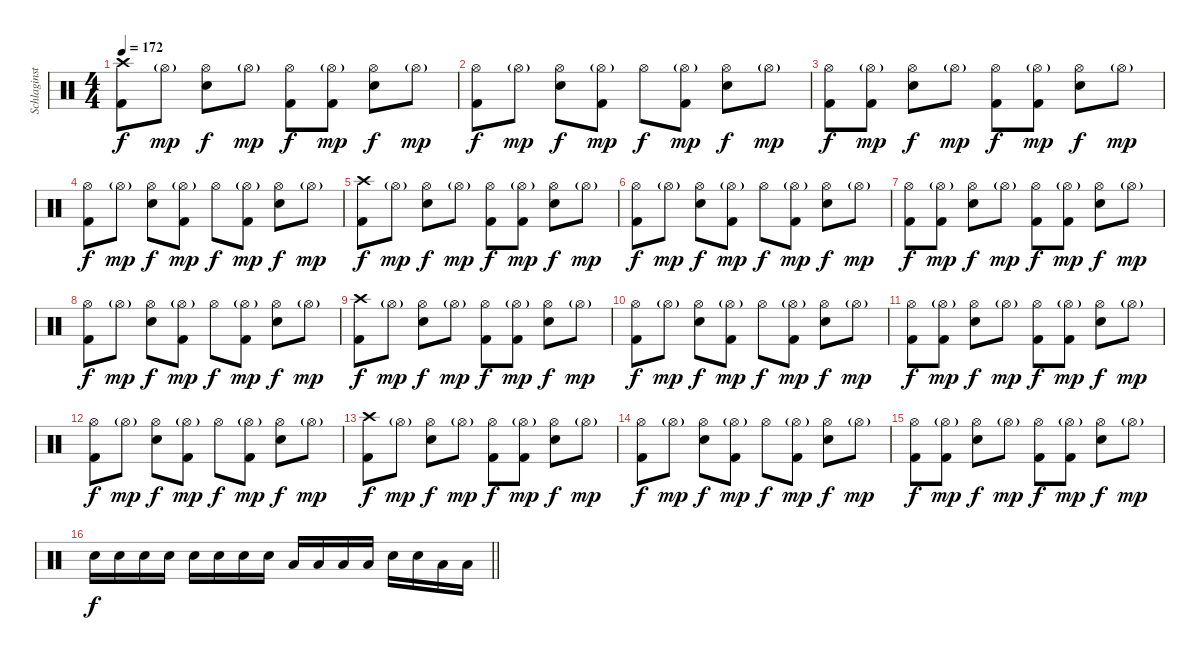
\track ("Schlaginstrumente - Auswahl" "Schlaginst") {instrument percussion}
\staff {score}
\articulation defaults
\ts (4 4)
\tempo 172
\clef neutral
\ks c
("Crash high (hit)" "Kick (hit) 2").8{dy f} "Hi-Hat (open)"{g}.8{dy mp} ("Hi-Hat (open)" "Snare (hit) 2").8{dy f} "Hi-Hat (open)"{g}.8{dy mp} ("Hi-Hat (open)" "Kick (hit) 2").8{dy f} ("Hi-Hat (open)"{g} "Kick (hit) 2").8{dy mp} ("Hi-Hat (open)" "Snare (hit) 2").8{dy f} "Hi-Hat (open)"{g}.8{dy mp} |
("Hi-Hat (open)" "Kick (hit) 2").8{dy f} "Hi-Hat (open)"{g}.8{dy mp} ("Hi-Hat (open)" "Snare (hit) 2").8{dy f} ("Hi-Hat (open)"{g} "Kick (hit) 2").8{dy mp} "Hi-Hat (open)".8{dy f} ("Hi-Hat (open)"{g} "Kick (hit) 2").8{dy mp} ("Hi-Hat (open)" "Snare (hit) 2").8{dy f} "Hi-Hat (open)"{g}.8{dy mp} |
("Hi-Hat (open)" "Kick (hit) 2").8{dy f} ("Hi-Hat (open)"{g} "Kick (hit) 2").8{dy mp} ("Hi-Hat (open)" "Snare (hit) 2").8{dy f} "Hi-Hat (open)"{g}.8{dy mp} ("Hi-Hat (open)" "Kick (hit) 2").8{dy f} ("Hi-Hat (open)"{g} "Kick (hit) 2").8{dy mp} ("Hi-Hat (open)" "Snare (hit) 2").8{dy f} "Hi-Hat (open)"{g}.8{dy mp} |
("Hi-Hat (open)" "Kick (hit) 2").8{dy f} "Hi-Hat (open)"{g}.8{dy mp} ("Hi-Hat (open)" "Snare (hit) 2").8{dy f} ("Hi-Hat (open)"{g} "Kick (hit) 2").8{dy mp} "Hi-Hat (open)".8{dy f} ("Hi-Hat (open)"{g} "Kick (hit) 2").8{dy mp} ("Hi-Hat (open)" "Snare (hit) 2").8{dy f} "Hi-Hat (open)"{g}.8{dy mp} |
("Crash high (hit)" "Kick (hit) 2").8{dy f} "Hi-Hat (open)"{g}.8{dy mp} ("Hi-Hat (open)" "Snare (hit) 2").8{dy f} "Hi-Hat (open)"{g}.8{dy mp} ("Hi-Hat (open)" "Kick (hit) 2").8{dy f} ("Hi-Hat (open)"{g} "Kick (hit) 2").8{dy mp} ("Hi-Hat (open)" "Snare (hit) 2").8{dy f} "Hi-Hat (open)"{g}.8{dy mp} |
("Hi-Hat (open)" "Kick (hit) 2").8{dy f} "Hi-Hat (open)"{g}.8{dy mp} ("Hi-Hat (open)" "Snare (hit) 2").8{dy f} ("Hi-Hat (open)"{g} "Kick (hit) 2").8{dy mp} "Hi-Hat (open)".8{dy f} ("Hi-Hat (open)"{g} "Kick (hit) 2").8{dy mp} ("Hi-Hat (open)" "Snare (hit) 2").8{dy f} "Hi-Hat (open)"{g}.8{dy mp} |
("Hi-Hat (open)" "Kick (hit) 2").8{dy f} ("Hi-Hat (open)"{g} "Kick (hit) 2").8{dy mp} ("Hi-Hat (open)" "Snare (hit) 2").8{dy f} "Hi-Hat (open)"{g}.8{dy mp} ("Hi-Hat (open)" "Kick (hit) 2").8{dy f} ("Hi-Hat (open)"{g} "Kick (hit) 2").8{dy mp} ("Hi-Hat (open)" "Snare (hit) 2").8{dy f} "Hi-Hat (open)"{g}.8{dy mp} |
("Hi-Hat (open)" "Kick (hit) 2").8{dy f} "Hi-Hat (open)"{g}.8{dy mp} ("Hi-Hat (open)" "Snare (hit) 2").8{dy f} ("Hi-Hat (open)"{g} "Kick (hit) 2").8{dy mp} "Hi-Hat (open)".8{dy f} ("Hi-Hat (open)"{g} "Kick (hit) 2").8{dy mp} ("Hi-Hat (open)" "Snare (hit) 2").8{dy f} "Hi-Hat (open)"{g}.8{dy mp} |
("Crash high (hit)" "Kick (hit) 2").8{dy f} "Hi-Hat (open)"{g}.8{dy mp} ("Hi-Hat (open)" "Snare (hit) 2").8{dy f} "Hi-Hat (open)"{g}.8{dy mp} ("Hi-Hat (open)" "Kick (hit) 2").8{dy f} ("Hi-Hat (open)"{g} "Kick (hit) 2").8{dy mp} ("Hi-Hat (open)" "Snare (hit) 2").8{dy f} "Hi-Hat (open)"{g}.8{dy mp} |
("Hi-Hat (open)" "Kick (hit) 2").8{dy f} "Hi-Hat (open)"{g}.8{dy mp} ("Hi-Hat (open)" "Snare (hit) 2").8{dy f} ("Hi-Hat (open)"{g} "Kick (hit) 2").8{dy mp} "Hi-Hat (open)".8{dy f} ("Hi-Hat (open)"{g} "Kick (hit) 2").8{dy mp} ("Hi-Hat (open)" "Snare (hit) 2").8{dy f} "Hi-Hat (open)"{g}.8{dy mp} |
("Hi-Hat (open)" "Kick (hit) 2").8{dy f} ("Hi-Hat (open)"{g} "Kick (hit) 2").8{dy mp} ("Hi-Hat (open)" "Snare (hit) 2").8{dy f} "Hi-Hat (open)"{g}.8{dy mp} ("Hi-Hat (open)" "Kick (hit) 2").8{dy f} ("Hi-Hat (open)"{g} "Kick (hit) 2").8{dy mp} ("Hi-Hat (open)" "Snare (hit) 2").8{dy f} "Hi-Hat (open)"{g}.8{dy mp} |
("Hi-Hat (open)" "Kick (hit) 2").8{dy f} "Hi-Hat (open)"{g}.8{dy mp} ("Hi-Hat (open)" "Snare (hit) 2").8{dy f} ("Hi-Hat (open)"{g} "Kick (hit) 2").8{dy mp} "Hi-Hat (open)".8{dy f} ("Hi-Hat (open)"{g} "Kick (hit) 2").8{dy mp} ("Hi-Hat (open)" "Snare (hit) 2").8{dy f} "Hi-Hat (open)"{g}.8{dy mp} |
("Crash high (hit)" "Kick (hit) 2").8{dy f} "Hi-Hat (open)"{g}.8{dy mp} ("Hi-Hat (open)" "Snare (hit) 2").8{dy f} "Hi-Hat (open)"{g}.8{dy mp} ("Hi-Hat (open)" "Kick (hit) 2").8{dy f} ("Hi-Hat (open)"{g} "Kick (hit) 2").8{dy mp} ("Hi-Hat (open)" "Snare (hit) 2").8{dy f} "Hi-Hat (open)"{g}.8{dy mp} |
("Hi-Hat (open)" "Kick (hit) 2").8{dy f} "Hi-Hat (open)"{g}.8{dy mp} ("Hi-Hat (open)" "Snare (hit) 2").8{dy f} ("Hi-Hat (open)"{g} "Kick (hit) 2").8{dy mp} "Hi-Hat (open)".8{dy f} ("Hi-Hat (open)"{g} "Kick (hit) 2").8{dy mp} ("Hi-Hat (open)" "Snare (hit) 2").8{dy f} "Hi-Hat (open)"{g}.8{dy mp} |
("Hi-Hat (open)" "Kick (hit) 2").8{dy f} ("Hi-Hat (open)"{g} "Kick (hit) 2").8{dy mp} ("Hi-Hat (open)" "Snare (hit) 2").8{dy f} "Hi-Hat (open)"{g}.8{dy mp} ("Hi-Hat (open)" "Kick (hit) 2").8{dy f} ("Hi-Hat (open)"{g} "Kick (hit) 2").8{dy mp} ("Hi-Hat (open)" "Snare (hit) 2").8{dy f} "Hi-Hat (open)"{g}.8{dy mp} |
\barLineRight lightlight "Snare (hit) 2".16{dy f} "Snare (hit) 2".16 "Snare (hit) 2".16 "Snare (hit) 2".16 "Snare (hit) 2".16 "Snare (hit) 2".16 "Snare (hit) 2".16 "Snare (hit) 2".16 "Low Tom (hit)".16 "Low Tom (hit)".16 "Low Tom (hit)".16 "Low Tom (hit)".16 "Snare (hit) 2".16 "Snare (hit) 2".16 "Low Tom (hit)".16 "Low Tom (hit)".16
